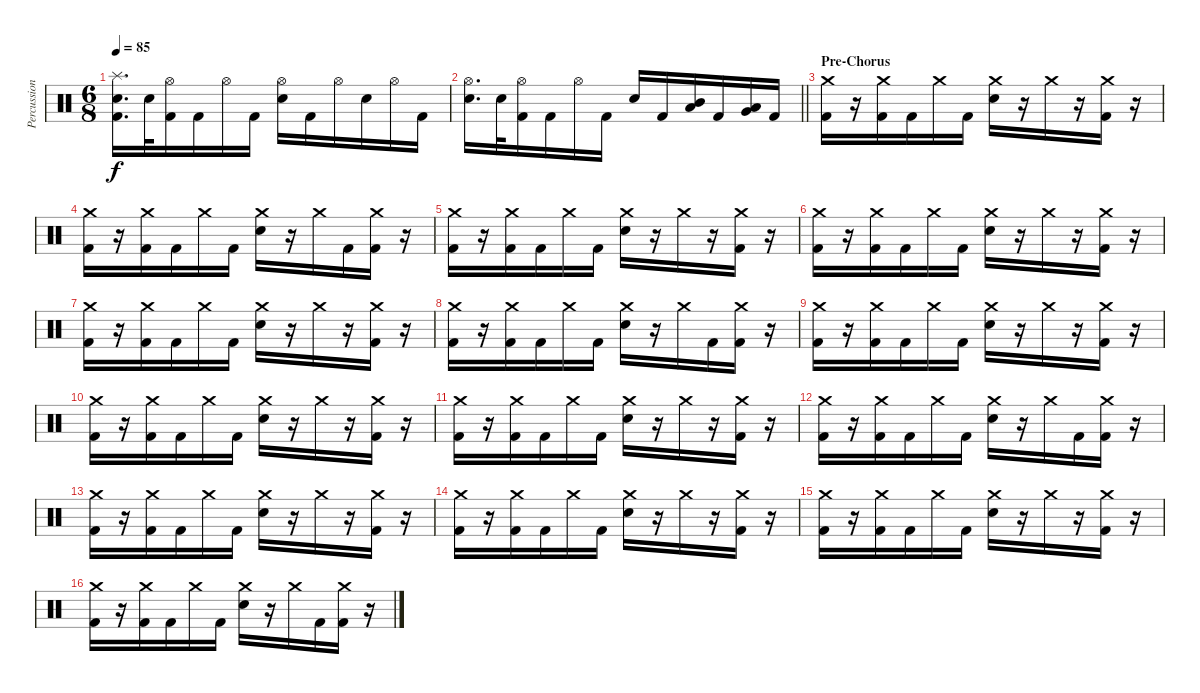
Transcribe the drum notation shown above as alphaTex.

\track ("Percussion" "Percussion") {instrument percussion}
\staff {score}
\articulation defaults
\ts (6 8)
\tempo 85
\clef neutral
\ks c
("Splash (hit)" "Electric Snare (hit)" "Kick (hit) 2").16{d dy f} "Electric Snare (hit)".32 ("Hi-Hat (open)" "Kick (hit) 2").16 "Kick (hit) 2".16 "Hi-Hat (open)".16 "Kick (hit) 2".16 ("Hi-Hat (open)" "Electric Snare (hit)").16 "Kick (hit) 2".16 "Hi-Hat (open)".16 "Electric Snare (hit)".16 "Hi-Hat (open)".16 "Kick (hit) 2".16 |
\barLineRight lightlight
("Hi-Hat (open)" "Electric Snare (hit)").16{d} "Electric Snare (hit)".32 ("Hi-Hat (open)" "Kick (hit) 2").16 "Kick (hit) 2".16 "Hi-Hat (open)".16 "Kick (hit) 2".16 "Electric Snare (hit)".16 "Kick (hit) 2".16 ("Mid Tom (hit)" "Low Tom (hit)").16 "Kick (hit) 2".16 ("Low Tom (hit)" "Very Low Tom (hit)").16 "Kick (hit) 2".16 |
\section ("" "Pre-Chorus")
("Crash medium (hit)" "Kick (hit) 2").16 r.16 ("Crash medium (hit)" "Kick (hit) 2").16 "Kick (hit) 2".16 "Crash medium (hit)".16 "Kick (hit) 2".16 ("Crash medium (hit)" "Electric Snare (hit)").16 r.16 "Crash medium (hit)".16 r.16 ("Crash medium (hit)" "Kick (hit) 2").16 r.16 |
("Crash medium (hit)" "Kick (hit) 2").16 r.16 ("Crash medium (hit)" "Kick (hit) 2").16 "Kick (hit) 2".16 "Crash medium (hit)".16 "Kick (hit) 2".16 ("Crash medium (hit)" "Electric Snare (hit)").16 r.16 "Crash medium (hit)".16 "Kick (hit) 2".16 ("Crash medium (hit)" "Kick (hit) 2").16 r.16 |
("Crash medium (hit)" "Kick (hit) 2").16 r.16 ("Crash medium (hit)" "Kick (hit) 2").16 "Kick (hit) 2".16 "Crash medium (hit)".16 "Kick (hit) 2".16 ("Crash medium (hit)" "Electric Snare (hit)").16 r.16 "Crash medium (hit)".16 r.16 ("Crash medium (hit)" "Kick (hit) 2").16 r.16 |
("Crash medium (hit)" "Kick (hit) 2").16 r.16 ("Crash medium (hit)" "Kick (hit) 2").16 "Kick (hit) 2".16 "Crash medium (hit)".16 "Kick (hit) 2".16 ("Crash medium (hit)" "Electric Snare (hit)").16 r.16 "Crash medium (hit)".16 r.16 ("Crash medium (hit)" "Kick (hit) 2").16 r.16 |
("Crash medium (hit)" "Kick (hit) 2").16 r.16 ("Crash medium (hit)" "Kick (hit) 2").16 "Kick (hit) 2".16 "Crash medium (hit)".16 "Kick (hit) 2".16 ("Crash medium (hit)" "Electric Snare (hit)").16 r.16 "Crash medium (hit)".16 r.16 ("Crash medium (hit)" "Kick (hit) 2").16 r.16 |
("Crash medium (hit)" "Kick (hit) 2").16 r.16 ("Crash medium (hit)" "Kick (hit) 2").16 "Kick (hit) 2".16 "Crash medium (hit)".16 "Kick (hit) 2".16 ("Crash medium (hit)" "Electric Snare (hit)").16 r.16 "Crash medium (hit)".16 "Kick (hit) 2".16 ("Crash medium (hit)" "Kick (hit) 2").16 r.16 |
("Crash medium (hit)" "Kick (hit) 2").16 r.16 ("Crash medium (hit)" "Kick (hit) 2").16 "Kick (hit) 2".16 "Crash medium (hit)".16 "Kick (hit) 2".16 ("Crash medium (hit)" "Electric Snare (hit)").16 r.16 "Crash medium (hit)".16 r.16 ("Crash medium (hit)" "Kick (hit) 2").16 r.16 |
("Crash medium (hit)" "Kick (hit) 2").16 r.16 ("Crash medium (hit)" "Kick (hit) 2").16 "Kick (hit) 2".16 "Crash medium (hit)".16 "Kick (hit) 2".16 ("Crash medium (hit)" "Electric Snare (hit)").16 r.16 "Crash medium (hit)".16 r.16 ("Crash medium (hit)" "Kick (hit) 2").16 r.16 |
("Crash medium (hit)" "Kick (hit) 2").16 r.16 ("Crash medium (hit)" "Kick (hit) 2").16 "Kick (hit) 2".16 "Crash medium (hit)".16 "Kick (hit) 2".16 ("Crash medium (hit)" "Electric Snare (hit)").16 r.16 "Crash medium (hit)".16 r.16 ("Crash medium (hit)" "Kick (hit) 2").16 r.16 |
("Crash medium (hit)" "Kick (hit) 2").16 r.16 ("Crash medium (hit)" "Kick (hit) 2").16 "Kick (hit) 2".16 "Crash medium (hit)".16 "Kick (hit) 2".16 ("Crash medium (hit)" "Electric Snare (hit)").16 r.16 "Crash medium (hit)".16 "Kick (hit) 2".16 ("Crash medium (hit)" "Kick (hit) 2").16 r.16 |
("Crash medium (hit)" "Kick (hit) 2").16 r.16 ("Crash medium (hit)" "Kick (hit) 2").16 "Kick (hit) 2".16 "Crash medium (hit)".16 "Kick (hit) 2".16 ("Crash medium (hit)" "Electric Snare (hit)").16 r.16 "Crash medium (hit)".16 r.16 ("Crash medium (hit)" "Kick (hit) 2").16 r.16 |
("Crash medium (hit)" "Kick (hit) 2").16 r.16 ("Crash medium (hit)" "Kick (hit) 2").16 "Kick (hit) 2".16 "Crash medium (hit)".16 "Kick (hit) 2".16 ("Crash medium (hit)" "Electric Snare (hit)").16 r.16 "Crash medium (hit)".16 r.16 ("Crash medium (hit)" "Kick (hit) 2").16 r.16 |
("Crash medium (hit)" "Kick (hit) 2").16 r.16 ("Crash medium (hit)" "Kick (hit) 2").16 "Kick (hit) 2".16 "Crash medium (hit)".16 "Kick (hit) 2".16 ("Crash medium (hit)" "Electric Snare (hit)").16 r.16 "Crash medium (hit)".16 r.16 ("Crash medium (hit)" "Kick (hit) 2").16 r.16 |
("Crash medium (hit)" "Kick (hit) 2").16 r.16 ("Crash medium (hit)" "Kick (hit) 2").16 "Kick (hit) 2".16 "Crash medium (hit)".16 "Kick (hit) 2".16 ("Crash medium (hit)" "Electric Snare (hit)").16 r.16 "Crash medium (hit)".16 "Kick (hit) 2".16 ("Crash medium (hit)" "Kick (hit) 2").16 r.16
